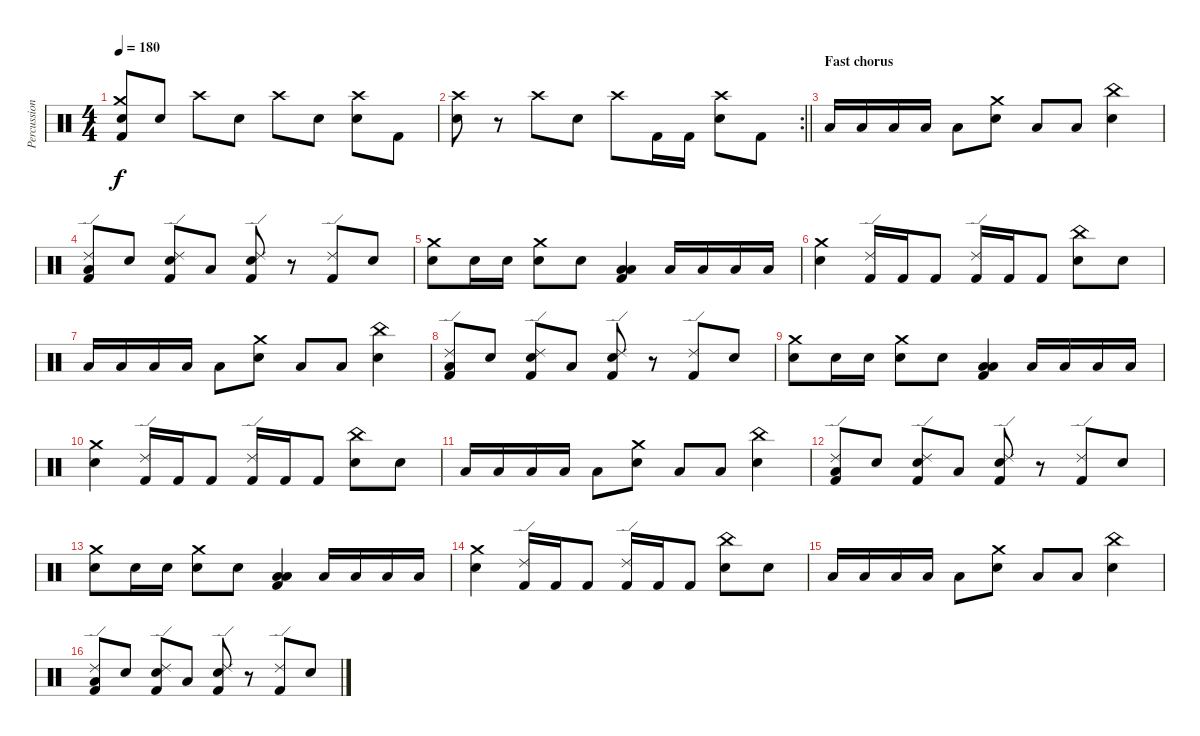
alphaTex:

\track ("Percussion" "Percussion") {instrument percussion}
\staff {score}
\articulation defaults
\ts (4 4)
\tempo 180
\clef neutral
\ks c
("Snare (hit) 2" "Crash medium (hit)" "Kick (hit) 2").8{dy f} "Snare (hit) 2".8 "Crash high (hit)".8 "Snare (hit) 2".8 "Crash high (hit)".8 "Snare (hit) 2".8 ("Crash high (hit)" "Snare (hit) 2").8 "Kick (hit) 2".8 |
\rc 2
\barLineRight lightlight
("Crash high (hit)" "Electric Snare (hit)").8 r.8 "Crash high (hit)".8 "Electric Snare (hit)".8 "Crash high (hit)".8 "Kick (hit) 2".16 "Kick (hit) 2".16 ("Crash high (hit)" "Electric Snare (hit)").8 "Kick (hit) 2".8 |
\section ("" "Fast chorus")
"Low Tom (hit)".16 "Low Tom (hit)".16 "Low Floor Tom (hit)".16 "Low Floor Tom (hit)".16 "Low Floor Tom (hit)".8 ("Crash medium (hit)" "Electric Snare (hit)").8 "Low Tom (hit)".8 "Low Tom (hit)".8 ("China (hit)" "Electric Snare (hit)").4 |
("Ride (edge) 2" "Low Floor Tom (hit)" "Kick (hit) 2").8 "Electric Snare (hit)".8 ("Ride (edge) 2" "Electric Snare (hit)" "Kick (hit) 2").8 "Low Floor Tom (hit)".8 ("Ride (edge) 2" "Electric Snare (hit)" "Kick (hit) 2").8 r.8 ("Ride (edge) 2" "Kick (hit) 2").8 "Electric Snare (hit)".8 |
("Crash medium (hit)" "Electric Snare (hit)").8 "Electric Snare (hit)".16 "Electric Snare (hit)".16 ("Crash medium (hit)" "Electric Snare (hit)").8 "Electric Snare (hit)".8 ("Low Tom (hit)" "Low Floor Tom (hit)" "Kick (hit) 2").4 "Low Tom (hit)".16 "Low Tom (hit)".16 "Low Floor Tom (hit)".16 "Low Floor Tom (hit)".16 |
("Crash medium (hit)" "Electric Snare (hit)").4 ("Ride (edge) 2" "Kick (hit) 2").16 "Kick (hit) 2".16 "Kick (hit) 2".8 ("Ride (edge) 2" "Kick (hit) 2").16 "Kick (hit) 2".16 "Kick (hit) 2".8 ("China (hit)" "Electric Snare (hit)").8 "Electric Snare (hit)".8 |
"Low Tom (hit)".16 "Low Tom (hit)".16 "Low Floor Tom (hit)".16 "Low Floor Tom (hit)".16 "Low Floor Tom (hit)".8 ("Crash medium (hit)" "Electric Snare (hit)").8 "Low Tom (hit)".8 "Low Tom (hit)".8 ("China (hit)" "Electric Snare (hit)").4 |
("Ride (edge) 2" "Low Floor Tom (hit)" "Kick (hit) 2").8 "Electric Snare (hit)".8 ("Ride (edge) 2" "Electric Snare (hit)" "Kick (hit) 2").8 "Low Floor Tom (hit)".8 ("Ride (edge) 2" "Electric Snare (hit)" "Kick (hit) 2").8 r.8 ("Ride (edge) 2" "Kick (hit) 2").8 "Electric Snare (hit)".8 |
("Crash medium (hit)" "Electric Snare (hit)").8 "Electric Snare (hit)".16 "Electric Snare (hit)".16 ("Crash medium (hit)" "Electric Snare (hit)").8 "Electric Snare (hit)".8 ("Low Tom (hit)" "Low Floor Tom (hit)" "Kick (hit) 2").4 "Low Tom (hit)".16 "Low Tom (hit)".16 "Low Floor Tom (hit)".16 "Low Floor Tom (hit)".16 |
("Crash medium (hit)" "Electric Snare (hit)").4 ("Ride (edge) 2" "Kick (hit) 2").16 "Kick (hit) 2".16 "Kick (hit) 2".8 ("Ride (edge) 2" "Kick (hit) 2").16 "Kick (hit) 2".16 "Kick (hit) 2".8 ("China (hit)" "Electric Snare (hit)").8 "Electric Snare (hit)".8 |
"Low Tom (hit)".16 "Low Tom (hit)".16 "Low Floor Tom (hit)".16 "Low Floor Tom (hit)".16 "Low Floor Tom (hit)".8 ("Crash medium (hit)" "Electric Snare (hit)").8 "Low Tom (hit)".8 "Low Tom (hit)".8 ("China (hit)" "Electric Snare (hit)").4 |
("Ride (edge) 2" "Low Floor Tom (hit)" "Kick (hit) 2").8 "Electric Snare (hit)".8 ("Ride (edge) 2" "Electric Snare (hit)" "Kick (hit) 2").8 "Low Floor Tom (hit)".8 ("Ride (edge) 2" "Electric Snare (hit)" "Kick (hit) 2").8 r.8 ("Ride (edge) 2" "Kick (hit) 2").8 "Electric Snare (hit)".8 |
("Crash medium (hit)" "Electric Snare (hit)").8 "Electric Snare (hit)".16 "Electric Snare (hit)".16 ("Crash medium (hit)" "Electric Snare (hit)").8 "Electric Snare (hit)".8 ("Low Tom (hit)" "Low Floor Tom (hit)" "Kick (hit) 2").4 "Low Tom (hit)".16 "Low Tom (hit)".16 "Low Floor Tom (hit)".16 "Low Floor Tom (hit)".16 |
("Crash medium (hit)" "Electric Snare (hit)").4 ("Ride (edge) 2" "Kick (hit) 2").16 "Kick (hit) 2".16 "Kick (hit) 2".8 ("Ride (edge) 2" "Kick (hit) 2").16 "Kick (hit) 2".16 "Kick (hit) 2".8 ("China (hit)" "Electric Snare (hit)").8 "Electric Snare (hit)".8 |
"Low Tom (hit)".16 "Low Tom (hit)".16 "Low Floor Tom (hit)".16 "Low Floor Tom (hit)".16 "Low Floor Tom (hit)".8 ("Crash medium (hit)" "Electric Snare (hit)").8 "Low Tom (hit)".8 "Low Tom (hit)".8 ("China (hit)" "Electric Snare (hit)").4 |
("Ride (edge) 2" "Low Floor Tom (hit)" "Kick (hit) 2").8 "Electric Snare (hit)".8 ("Ride (edge) 2" "Electric Snare (hit)" "Kick (hit) 2").8 "Low Floor Tom (hit)".8 ("Ride (edge) 2" "Electric Snare (hit)" "Kick (hit) 2").8 r.8 ("Ride (edge) 2" "Kick (hit) 2").8 "Electric Snare (hit)".8
